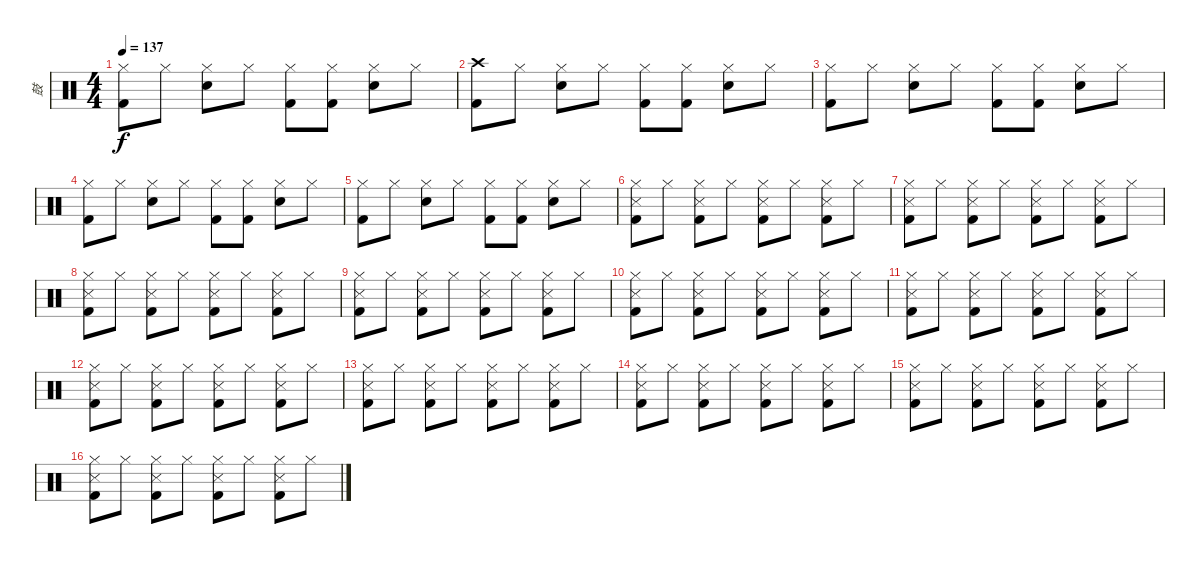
\track ("鼓" "鼓") {instrument percussion}
\staff {score}
\articulation defaults
\ts (4 4)
\tempo 137
\clef neutral
\ks c
("Hi-Hat (closed)" "Kick (hit) 2").8{dy f} "Hi-Hat (closed)".8 ("Hi-Hat (closed)" "Snare (hit) 2").8 "Hi-Hat (closed)".8 ("Hi-Hat (closed)" "Kick (hit) 2").8 ("Hi-Hat (closed)" "Kick (hit) 2").8 ("Hi-Hat (closed)" "Snare (hit) 2").8 "Hi-Hat (closed)".8 |
("Crash high (hit)" "Kick (hit) 2").8 "Hi-Hat (closed)".8 ("Hi-Hat (closed)" "Snare (hit) 2").8 "Hi-Hat (closed)".8 ("Hi-Hat (closed)" "Kick (hit) 2").8 ("Hi-Hat (closed)" "Kick (hit) 2").8 ("Hi-Hat (closed)" "Snare (hit) 2").8 "Hi-Hat (closed)".8 |
("Hi-Hat (closed)" "Kick (hit) 2").8 "Hi-Hat (closed)".8 ("Hi-Hat (closed)" "Snare (hit) 2").8 "Hi-Hat (closed)".8 ("Hi-Hat (closed)" "Kick (hit) 2").8 ("Hi-Hat (closed)" "Kick (hit) 2").8 ("Hi-Hat (closed)" "Snare (hit) 2").8 "Hi-Hat (closed)".8 |
("Hi-Hat (closed)" "Kick (hit) 2").8 "Hi-Hat (closed)".8 ("Hi-Hat (closed)" "Snare (hit) 2").8 "Hi-Hat (closed)".8 ("Hi-Hat (closed)" "Kick (hit) 2").8 ("Hi-Hat (closed)" "Kick (hit) 2").8 ("Hi-Hat (closed)" "Snare (hit) 2").8 "Hi-Hat (closed)".8 |
("Hi-Hat (closed)" "Kick (hit) 2").8 "Hi-Hat (closed)".8 ("Hi-Hat (closed)" "Snare (hit) 2").8 "Hi-Hat (closed)".8 ("Hi-Hat (closed)" "Kick (hit) 2").8 ("Hi-Hat (closed)" "Kick (hit) 2").8 ("Hi-Hat (closed)" "Snare (hit) 2").8 "Hi-Hat (closed)".8 |
("Hi-Hat (closed)" "Snare (side stick) 3" "Kick (hit) 2").8 "Hi-Hat (closed)".8 ("Hi-Hat (closed)" "Snare (side stick) 3" "Kick (hit) 2").8 "Hi-Hat (closed)".8 ("Hi-Hat (closed)" "Snare (side stick) 3" "Kick (hit) 2").8 "Hi-Hat (closed)".8 ("Hi-Hat (closed)" "Snare (side stick) 3" "Kick (hit) 2").8 "Hi-Hat (closed)".8 |
("Hi-Hat (closed)" "Snare (side stick) 3" "Kick (hit) 2").8 "Hi-Hat (closed)".8 ("Hi-Hat (closed)" "Snare (side stick) 3" "Kick (hit) 2").8 "Hi-Hat (closed)".8 ("Hi-Hat (closed)" "Snare (side stick) 3" "Kick (hit) 2").8 "Hi-Hat (closed)".8 ("Hi-Hat (closed)" "Snare (side stick) 3" "Kick (hit) 2").8 "Hi-Hat (closed)".8 |
("Hi-Hat (closed)" "Snare (side stick) 3" "Kick (hit) 2").8 "Hi-Hat (closed)".8 ("Hi-Hat (closed)" "Snare (side stick) 3" "Kick (hit) 2").8 "Hi-Hat (closed)".8 ("Hi-Hat (closed)" "Snare (side stick) 3" "Kick (hit) 2").8 "Hi-Hat (closed)".8 ("Hi-Hat (closed)" "Snare (side stick) 3" "Kick (hit) 2").8 "Hi-Hat (closed)".8 |
("Hi-Hat (closed)" "Snare (side stick) 3" "Kick (hit) 2").8 "Hi-Hat (closed)".8 ("Hi-Hat (closed)" "Snare (side stick) 3" "Kick (hit) 2").8 "Hi-Hat (closed)".8 ("Hi-Hat (closed)" "Snare (side stick) 3" "Kick (hit) 2").8 "Hi-Hat (closed)".8 ("Hi-Hat (closed)" "Snare (side stick) 3" "Kick (hit) 2").8 "Hi-Hat (closed)".8 |
("Hi-Hat (closed)" "Snare (side stick) 3" "Kick (hit) 2").8 "Hi-Hat (closed)".8 ("Hi-Hat (closed)" "Snare (side stick) 3" "Kick (hit) 2").8 "Hi-Hat (closed)".8 ("Hi-Hat (closed)" "Snare (side stick) 3" "Kick (hit) 2").8 "Hi-Hat (closed)".8 ("Hi-Hat (closed)" "Snare (side stick) 3" "Kick (hit) 2").8 "Hi-Hat (closed)".8 |
("Hi-Hat (closed)" "Snare (side stick) 3" "Kick (hit) 2").8 "Hi-Hat (closed)".8 ("Hi-Hat (closed)" "Snare (side stick) 3" "Kick (hit) 2").8 "Hi-Hat (closed)".8 ("Hi-Hat (closed)" "Snare (side stick) 3" "Kick (hit) 2").8 "Hi-Hat (closed)".8 ("Hi-Hat (closed)" "Snare (side stick) 3" "Kick (hit) 2").8 "Hi-Hat (closed)".8 |
("Hi-Hat (closed)" "Snare (side stick) 3" "Kick (hit) 2").8 "Hi-Hat (closed)".8 ("Hi-Hat (closed)" "Snare (side stick) 3" "Kick (hit) 2").8 "Hi-Hat (closed)".8 ("Hi-Hat (closed)" "Snare (side stick) 3" "Kick (hit) 2").8 "Hi-Hat (closed)".8 ("Hi-Hat (closed)" "Snare (side stick) 3" "Kick (hit) 2").8 "Hi-Hat (closed)".8 |
("Hi-Hat (closed)" "Snare (side stick) 3" "Kick (hit) 2").8 "Hi-Hat (closed)".8 ("Hi-Hat (closed)" "Snare (side stick) 3" "Kick (hit) 2").8 "Hi-Hat (closed)".8 ("Hi-Hat (closed)" "Snare (side stick) 3" "Kick (hit) 2").8 "Hi-Hat (closed)".8 ("Hi-Hat (closed)" "Snare (side stick) 3" "Kick (hit) 2").8 "Hi-Hat (closed)".8 |
("Hi-Hat (closed)" "Snare (side stick) 3" "Kick (hit) 2").8 "Hi-Hat (closed)".8 ("Hi-Hat (closed)" "Snare (side stick) 3" "Kick (hit) 2").8 "Hi-Hat (closed)".8 ("Hi-Hat (closed)" "Snare (side stick) 3" "Kick (hit) 2").8 "Hi-Hat (closed)".8 ("Hi-Hat (closed)" "Snare (side stick) 3" "Kick (hit) 2").8 "Hi-Hat (closed)".8 |
("Hi-Hat (closed)" "Snare (side stick) 3" "Kick (hit) 2").8 "Hi-Hat (closed)".8 ("Hi-Hat (closed)" "Snare (side stick) 3" "Kick (hit) 2").8 "Hi-Hat (closed)".8 ("Hi-Hat (closed)" "Snare (side stick) 3" "Kick (hit) 2").8 "Hi-Hat (closed)".8 ("Hi-Hat (closed)" "Snare (side stick) 3" "Kick (hit) 2").8 "Hi-Hat (closed)".8 |
("Hi-Hat (closed)" "Snare (side stick) 3" "Kick (hit) 2").8 "Hi-Hat (closed)".8 ("Hi-Hat (closed)" "Snare (side stick) 3" "Kick (hit) 2").8 "Hi-Hat (closed)".8 ("Hi-Hat (closed)" "Snare (side stick) 3" "Kick (hit) 2").8 "Hi-Hat (closed)".8 ("Hi-Hat (closed)" "Snare (side stick) 3" "Kick (hit) 2").8 "Hi-Hat (closed)".8
